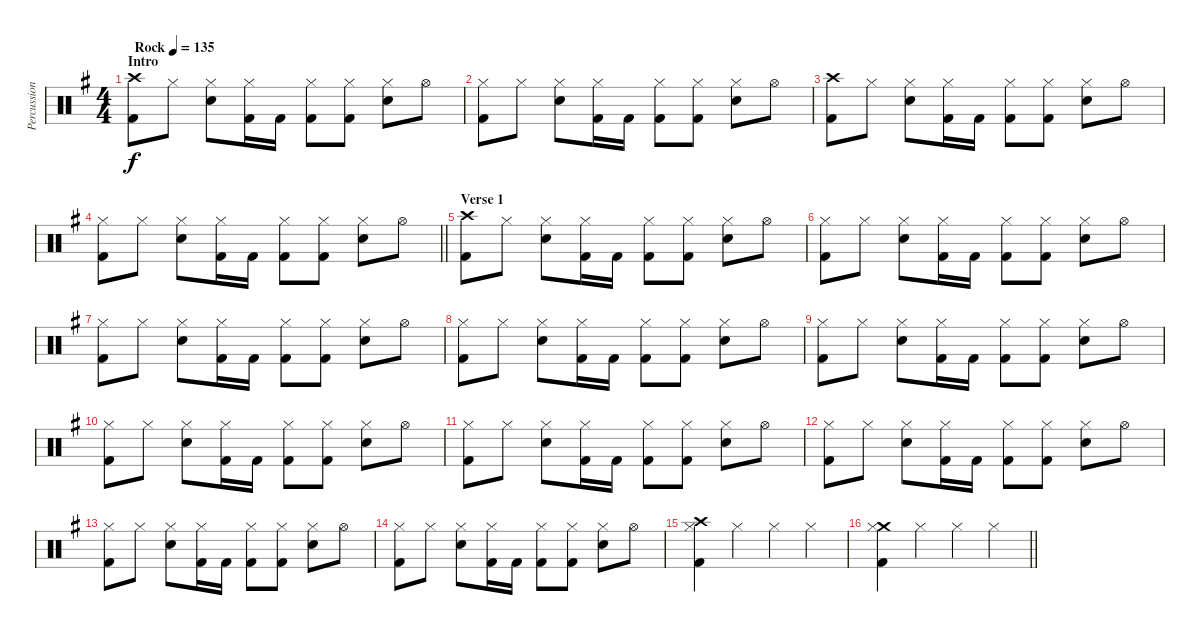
\track ("Percussion" "Percussion") {instrument percussion}
\staff {score}
\articulation defaults
\ts (4 4)
\section ("" "Intro")
\tempo (135 "Rock")
\clef neutral
\ks g
("Crash high (hit)" "Kick (hit) 2").8{dy f} "Hi-Hat (closed)".8 ("Hi-Hat (closed)" "Electric Snare (hit)").8 ("Hi-Hat (closed)" "Kick (hit) 2").16 "Kick (hit) 2".16 ("Hi-Hat (closed)" "Kick (hit) 2").8 ("Hi-Hat (closed)" "Kick (hit) 2").8 ("Hi-Hat (closed)" "Electric Snare (hit)").8 "Hi-Hat (open)".8 |
("Hi-Hat (closed)" "Kick (hit) 2").8 "Hi-Hat (closed)".8 ("Hi-Hat (closed)" "Electric Snare (hit)").8 ("Hi-Hat (closed)" "Kick (hit) 2").16 "Kick (hit) 2".16 ("Hi-Hat (closed)" "Kick (hit) 2").8 ("Hi-Hat (closed)" "Kick (hit) 2").8 ("Hi-Hat (closed)" "Electric Snare (hit)").8 "Hi-Hat (open)".8 |
("Crash high (hit)" "Kick (hit) 2").8 "Hi-Hat (closed)".8 ("Hi-Hat (closed)" "Electric Snare (hit)").8 ("Hi-Hat (closed)" "Kick (hit) 2").16 "Kick (hit) 2".16 ("Hi-Hat (closed)" "Kick (hit) 2").8 ("Hi-Hat (closed)" "Kick (hit) 2").8 ("Hi-Hat (closed)" "Electric Snare (hit)").8 "Hi-Hat (open)".8 |
\barLineRight lightlight
("Hi-Hat (closed)" "Kick (hit) 2").8 "Hi-Hat (closed)".8 ("Hi-Hat (closed)" "Electric Snare (hit)").8 ("Hi-Hat (closed)" "Kick (hit) 2").16 "Kick (hit) 2".16 ("Hi-Hat (closed)" "Kick (hit) 2").8 ("Hi-Hat (closed)" "Kick (hit) 2").8 ("Hi-Hat (closed)" "Electric Snare (hit)").8 "Hi-Hat (open)".8 |
\section ("" "Verse 1")
("Crash high (hit)" "Kick (hit) 2").8 "Hi-Hat (closed)".8 ("Hi-Hat (closed)" "Electric Snare (hit)").8 ("Hi-Hat (closed)" "Kick (hit) 2").16 "Kick (hit) 2".16 ("Hi-Hat (closed)" "Kick (hit) 2").8 ("Hi-Hat (closed)" "Kick (hit) 2").8 ("Hi-Hat (closed)" "Electric Snare (hit)").8 "Hi-Hat (open)".8 |
("Hi-Hat (closed)" "Kick (hit) 2").8 "Hi-Hat (closed)".8 ("Hi-Hat (closed)" "Electric Snare (hit)").8 ("Hi-Hat (closed)" "Kick (hit) 2").16 "Kick (hit) 2".16 ("Hi-Hat (closed)" "Kick (hit) 2").8 ("Hi-Hat (closed)" "Kick (hit) 2").8 ("Hi-Hat (closed)" "Electric Snare (hit)").8 "Hi-Hat (open)".8 |
("Hi-Hat (closed)" "Kick (hit) 2").8 "Hi-Hat (closed)".8 ("Hi-Hat (closed)" "Electric Snare (hit)").8 ("Hi-Hat (closed)" "Kick (hit) 2").16 "Kick (hit) 2".16 ("Hi-Hat (closed)" "Kick (hit) 2").8 ("Hi-Hat (closed)" "Kick (hit) 2").8 ("Hi-Hat (closed)" "Electric Snare (hit)").8 "Hi-Hat (open)".8 |
("Hi-Hat (closed)" "Kick (hit) 2").8 "Hi-Hat (closed)".8 ("Hi-Hat (closed)" "Electric Snare (hit)").8 ("Hi-Hat (closed)" "Kick (hit) 2").16 "Kick (hit) 2".16 ("Hi-Hat (closed)" "Kick (hit) 2").8 ("Hi-Hat (closed)" "Kick (hit) 2").8 ("Hi-Hat (closed)" "Electric Snare (hit)").8 "Hi-Hat (open)".8 |
("Hi-Hat (closed)" "Kick (hit) 2").8 "Hi-Hat (closed)".8 ("Hi-Hat (closed)" "Electric Snare (hit)").8 ("Hi-Hat (closed)" "Kick (hit) 2").16 "Kick (hit) 2".16 ("Hi-Hat (closed)" "Kick (hit) 2").8 ("Hi-Hat (closed)" "Kick (hit) 2").8 ("Hi-Hat (closed)" "Electric Snare (hit)").8 "Hi-Hat (open)".8 |
("Hi-Hat (closed)" "Kick (hit) 2").8 "Hi-Hat (closed)".8 ("Hi-Hat (closed)" "Electric Snare (hit)").8 ("Hi-Hat (closed)" "Kick (hit) 2").16 "Kick (hit) 2".16 ("Hi-Hat (closed)" "Kick (hit) 2").8 ("Hi-Hat (closed)" "Kick (hit) 2").8 ("Hi-Hat (closed)" "Electric Snare (hit)").8 "Hi-Hat (open)".8 |
("Hi-Hat (closed)" "Kick (hit) 2").8 "Hi-Hat (closed)".8 ("Hi-Hat (closed)" "Electric Snare (hit)").8 ("Hi-Hat (closed)" "Kick (hit) 2").16 "Kick (hit) 2".16 ("Hi-Hat (closed)" "Kick (hit) 2").8 ("Hi-Hat (closed)" "Kick (hit) 2").8 ("Hi-Hat (closed)" "Electric Snare (hit)").8 "Hi-Hat (open)".8 |
("Hi-Hat (closed)" "Kick (hit) 2").8 "Hi-Hat (closed)".8 ("Hi-Hat (closed)" "Electric Snare (hit)").8 ("Hi-Hat (closed)" "Kick (hit) 2").16 "Kick (hit) 2".16 ("Hi-Hat (closed)" "Kick (hit) 2").8 ("Hi-Hat (closed)" "Kick (hit) 2").8 ("Hi-Hat (closed)" "Electric Snare (hit)").8 "Hi-Hat (open)".8 |
("Hi-Hat (closed)" "Kick (hit) 2").8 "Hi-Hat (closed)".8 ("Hi-Hat (closed)" "Electric Snare (hit)").8 ("Hi-Hat (closed)" "Kick (hit) 2").16 "Kick (hit) 2".16 ("Hi-Hat (closed)" "Kick (hit) 2").8 ("Hi-Hat (closed)" "Kick (hit) 2").8 ("Hi-Hat (closed)" "Electric Snare (hit)").8 "Hi-Hat (open)".8 |
("Hi-Hat (closed)" "Kick (hit) 2").8 "Hi-Hat (closed)".8 ("Hi-Hat (closed)" "Electric Snare (hit)").8 ("Hi-Hat (closed)" "Kick (hit) 2").16 "Kick (hit) 2".16 ("Hi-Hat (closed)" "Kick (hit) 2").8 ("Hi-Hat (closed)" "Kick (hit) 2").8 ("Hi-Hat (closed)" "Electric Snare (hit)").8 "Hi-Hat (open)".8 |
("Crash high (hit)" "Hi-Hat (closed)" "Kick (hit) 2").4 "Hi-Hat (closed)".4 "Hi-Hat (closed)".4 "Hi-Hat (closed)".4 |
\barLineRight lightlight
("Crash medium (hit)" "Hi-Hat (closed)" "Kick (hit) 2").4 "Hi-Hat (closed)".4 "Hi-Hat (closed)".4 "Hi-Hat (closed)".4
